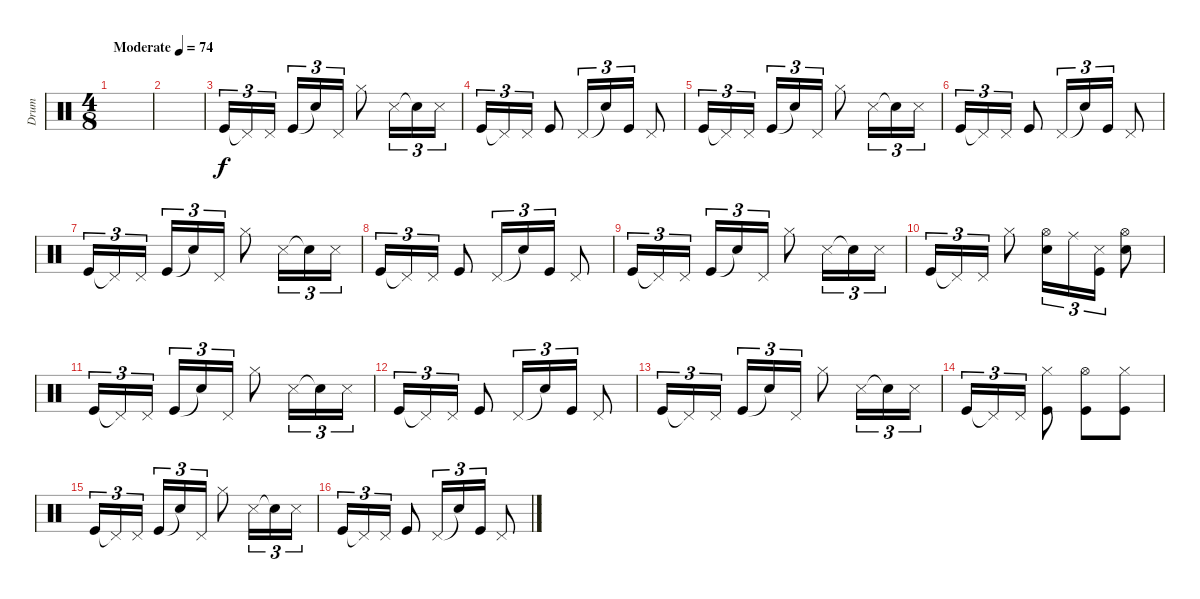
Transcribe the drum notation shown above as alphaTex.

\track ("Drum" "Drum") {instrument percussion}
\staff {score}
\articulation defaults
\ts (4 8)
\tempo (74 "Moderate")
\clef neutral
\ks c
|
|
"Kick (hit)".16{tu (3 2)} "Pedal Hi-Hat (hit)"{t}.16{tu (3 2)} "Pedal Hi-Hat (hit)".16{tu (3 2)} "Kick (hit)".16{tu (3 2)} "Snare (hit)"{t}.16{tu (3 2)} "Pedal Hi-Hat (hit)".16{tu (3 2)} "Hi-Hat (closed)".8 "Snare (side stick) 3".16{tu (3 2)} "Snare (hit)"{t}.16{tu (3 2)} "Snare (side stick) 3".16{tu (3 2)} |
"Kick (hit)".16{tu (3 2)} "Pedal Hi-Hat (hit)"{t}.16{tu (3 2)} "Pedal Hi-Hat (hit)".16{tu (3 2)} "Kick (hit)".8 "Pedal Hi-Hat (hit)".16{tu (3 2)} "Snare (hit)"{t}.16{tu (3 2)} "Kick (hit)".16{tu (3 2)} "Pedal Hi-Hat (hit)".8 |
"Kick (hit)".16{tu (3 2)} "Pedal Hi-Hat (hit)"{t}.16{tu (3 2)} "Pedal Hi-Hat (hit)".16{tu (3 2)} "Kick (hit)".16{tu (3 2)} "Snare (hit)"{t}.16{tu (3 2)} "Pedal Hi-Hat (hit)".16{tu (3 2)} "Hi-Hat (closed)".8 "Snare (side stick) 3".16{tu (3 2)} "Snare (hit)"{t}.16{tu (3 2)} "Snare (side stick) 3".16{tu (3 2)} |
"Kick (hit)".16{tu (3 2)} "Pedal Hi-Hat (hit)"{t}.16{tu (3 2)} "Pedal Hi-Hat (hit)".16{tu (3 2)} "Kick (hit)".8 "Pedal Hi-Hat (hit)".16{tu (3 2)} "Snare (hit)"{t}.16{tu (3 2)} "Kick (hit)".16{tu (3 2)} "Pedal Hi-Hat (hit)".8 |
"Kick (hit)".16{tu (3 2)} "Pedal Hi-Hat (hit)"{t}.16{tu (3 2)} "Pedal Hi-Hat (hit)".16{tu (3 2)} "Kick (hit)".16{tu (3 2)} "Snare (hit)"{t}.16{tu (3 2)} "Pedal Hi-Hat (hit)".16{tu (3 2)} "Hi-Hat (closed)".8 "Snare (side stick) 3".16{tu (3 2)} "Snare (hit)"{t}.16{tu (3 2)} "Snare (side stick) 3".16{tu (3 2)} |
"Kick (hit)".16{tu (3 2)} "Pedal Hi-Hat (hit)"{t}.16{tu (3 2)} "Pedal Hi-Hat (hit)".16{tu (3 2)} "Kick (hit)".8 "Pedal Hi-Hat (hit)".16{tu (3 2)} "Snare (hit)"{t}.16{tu (3 2)} "Kick (hit)".16{tu (3 2)} "Pedal Hi-Hat (hit)".8 |
"Kick (hit)".16{tu (3 2)} "Pedal Hi-Hat (hit)"{t}.16{tu (3 2)} "Pedal Hi-Hat (hit)".16{tu (3 2)} "Kick (hit)".16{tu (3 2)} "Snare (hit)"{t}.16{tu (3 2)} "Pedal Hi-Hat (hit)".16{tu (3 2)} "Hi-Hat (closed)".8 "Snare (side stick) 3".16{tu (3 2)} "Snare (hit)"{t}.16{tu (3 2)} "Snare (side stick) 3".16{tu (3 2)} |
"Kick (hit)".16{tu (3 2)} "Pedal Hi-Hat (hit)"{t}.16{tu (3 2)} "Pedal Hi-Hat (hit)".16{tu (3 2)} "Hi-Hat (closed)".8 ("Hi-Hat (open)" "Snare (hit) 2").16{tu (3 2)} "Ride (middle)".16{tu (3 2)} ("Snare (side stick) 3" "Kick (hit)").16{tu (3 2)} ("Hi-Hat (open)" "Snare (hit) 2").8 |
"Kick (hit)".16{tu (3 2)} "Pedal Hi-Hat (hit)"{t}.16{tu (3 2)} "Pedal Hi-Hat (hit)".16{tu (3 2)} "Kick (hit)".16{tu (3 2)} "Snare (hit)"{t}.16{tu (3 2)} "Pedal Hi-Hat (hit)".16{tu (3 2)} "Hi-Hat (closed)".8 "Snare (side stick) 3".16{tu (3 2)} "Snare (hit)"{t}.16{tu (3 2)} "Snare (side stick) 3".16{tu (3 2)} |
"Kick (hit)".16{tu (3 2)} "Pedal Hi-Hat (hit)"{t}.16{tu (3 2)} "Pedal Hi-Hat (hit)".16{tu (3 2)} "Kick (hit)".8 "Pedal Hi-Hat (hit)".16{tu (3 2)} "Snare (hit)"{t}.16{tu (3 2)} "Kick (hit)".16{tu (3 2)} "Pedal Hi-Hat (hit)".8 |
"Kick (hit)".16{tu (3 2)} "Pedal Hi-Hat (hit)"{t}.16{tu (3 2)} "Pedal Hi-Hat (hit)".16{tu (3 2)} "Kick (hit)".16{tu (3 2)} "Snare (hit)"{t}.16{tu (3 2)} "Pedal Hi-Hat (hit)".16{tu (3 2)} "Hi-Hat (closed)".8 "Snare (side stick) 3".16{tu (3 2)} "Snare (hit)"{t}.16{tu (3 2)} "Snare (side stick) 3".16{tu (3 2)} |
"Kick (hit)".16{tu (3 2)} "Pedal Hi-Hat (hit)"{t}.16{tu (3 2)} "Pedal Hi-Hat (hit)".16{tu (3 2)} ("Hi-Hat (closed)" "Kick (hit)").8 ("Hi-Hat (open)" "Kick (hit)").8 ("Hi-Hat (closed)" "Kick (hit)").8 |
"Kick (hit)".16{tu (3 2)} "Pedal Hi-Hat (hit)"{t}.16{tu (3 2)} "Pedal Hi-Hat (hit)".16{tu (3 2)} "Kick (hit)".16{tu (3 2)} "Snare (hit)"{t}.16{tu (3 2)} "Pedal Hi-Hat (hit)".16{tu (3 2)} "Hi-Hat (closed)".8 "Snare (side stick) 3".16{tu (3 2)} "Snare (hit)"{t}.16{tu (3 2)} "Snare (side stick) 3".16{tu (3 2)} |
"Kick (hit)".16{tu (3 2)} "Pedal Hi-Hat (hit)"{t}.16{tu (3 2)} "Pedal Hi-Hat (hit)".16{tu (3 2)} "Kick (hit)".8 "Pedal Hi-Hat (hit)".16{tu (3 2)} "Snare (hit)"{t}.16{tu (3 2)} "Kick (hit)".16{tu (3 2)} "Pedal Hi-Hat (hit)".8
